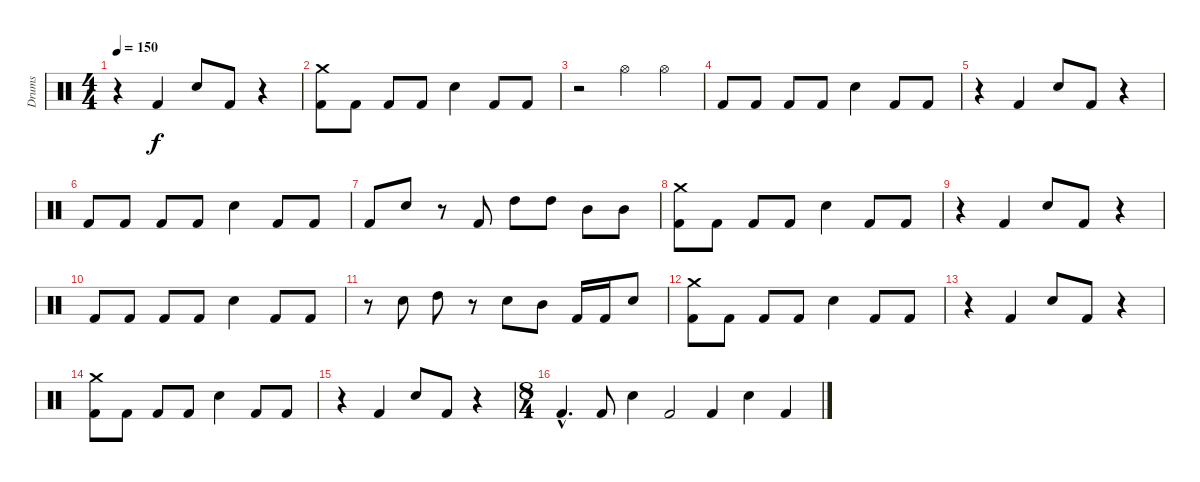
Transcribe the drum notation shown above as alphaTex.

\track ("Drums" "Drums") {instrument percussion}
\staff {score}
\articulation defaults
\ts (4 4)
\tempo 150
\clef neutral
\ks c
r.4{dy f} "Kick (hit) 2".4 "Snare (hit) 2".8 "Kick (hit) 2".8 r.4 |
("Crash medium (hit)" "Kick (hit) 2").8 "Kick (hit) 2".8 "Kick (hit) 2".8 "Kick (hit) 2".8 "Snare (hit) 2".4 "Kick (hit) 2".8 "Kick (hit) 2".8 |
r.2 "Hi-Hat (open)".4 "Hi-Hat (open)".4 |
"Kick (hit) 2".8 "Kick (hit) 2".8 "Kick (hit) 2".8 "Kick (hit) 2".8 "Snare (hit) 2".4 "Kick (hit) 2".8 "Kick (hit) 2".8 |
r.4 "Kick (hit) 2".4 "Snare (hit) 2".8 "Kick (hit) 2".8 r.4 |
"Kick (hit) 2".8 "Kick (hit) 2".8 "Kick (hit) 2".8 "Kick (hit) 2".8 "Snare (hit) 2".4 "Kick (hit) 2".8 "Kick (hit) 2".8 |
"Kick (hit) 2".8 "Snare (hit) 2".8 r.8 "Kick (hit) 2".8 "High Tom (hit)".8 "High Tom (hit)".8 "Mid Tom (hit)".8 "Mid Tom (hit)".8 |
("Crash medium (hit)" "Kick (hit) 2").8 "Kick (hit) 2".8 "Kick (hit) 2".8 "Kick (hit) 2".8 "Snare (hit) 2".4 "Kick (hit) 2".8 "Kick (hit) 2".8 |
r.4 "Kick (hit) 2".4 "Snare (hit) 2".8 "Kick (hit) 2".8 r.4 |
"Kick (hit) 2".8 "Kick (hit) 2".8 "Kick (hit) 2".8 "Kick (hit) 2".8 "Snare (hit) 2".4 "Kick (hit) 2".8 "Kick (hit) 2".8 |
r.8 "Snare (hit) 2".8 "High Tom (hit)".8 r.8 "Snare (hit) 2".8 "Mid Tom (hit)".8 "Kick (hit) 2".16 "Kick (hit) 2".16 "Snare (hit) 2".8 |
("Crash medium (hit)" "Kick (hit) 2").8 "Kick (hit) 2".8 "Kick (hit) 2".8 "Kick (hit) 2".8 "Snare (hit) 2".4 "Kick (hit) 2".8 "Kick (hit) 2".8 |
r.4 "Kick (hit) 2".4 "Snare (hit) 2".8 "Kick (hit) 2".8 r.4 |
("Crash medium (hit)" "Kick (hit) 2").8 "Kick (hit) 2".8 "Kick (hit) 2".8 "Kick (hit) 2".8 "Snare (hit) 2".4 "Kick (hit) 2".8 "Kick (hit) 2".8 |
r.4 "Kick (hit) 2".4 "Snare (hit) 2".8 "Kick (hit) 2".8 r.4 |
\ts (8 4)
"Kick (hit) 2"{hac}.4{d} "Kick (hit) 2".8 "Snare (hit) 2".4 "Kick (hit) 2".2 "Kick (hit) 2".4 "Snare (hit) 2".4 "Kick (hit) 2".4
